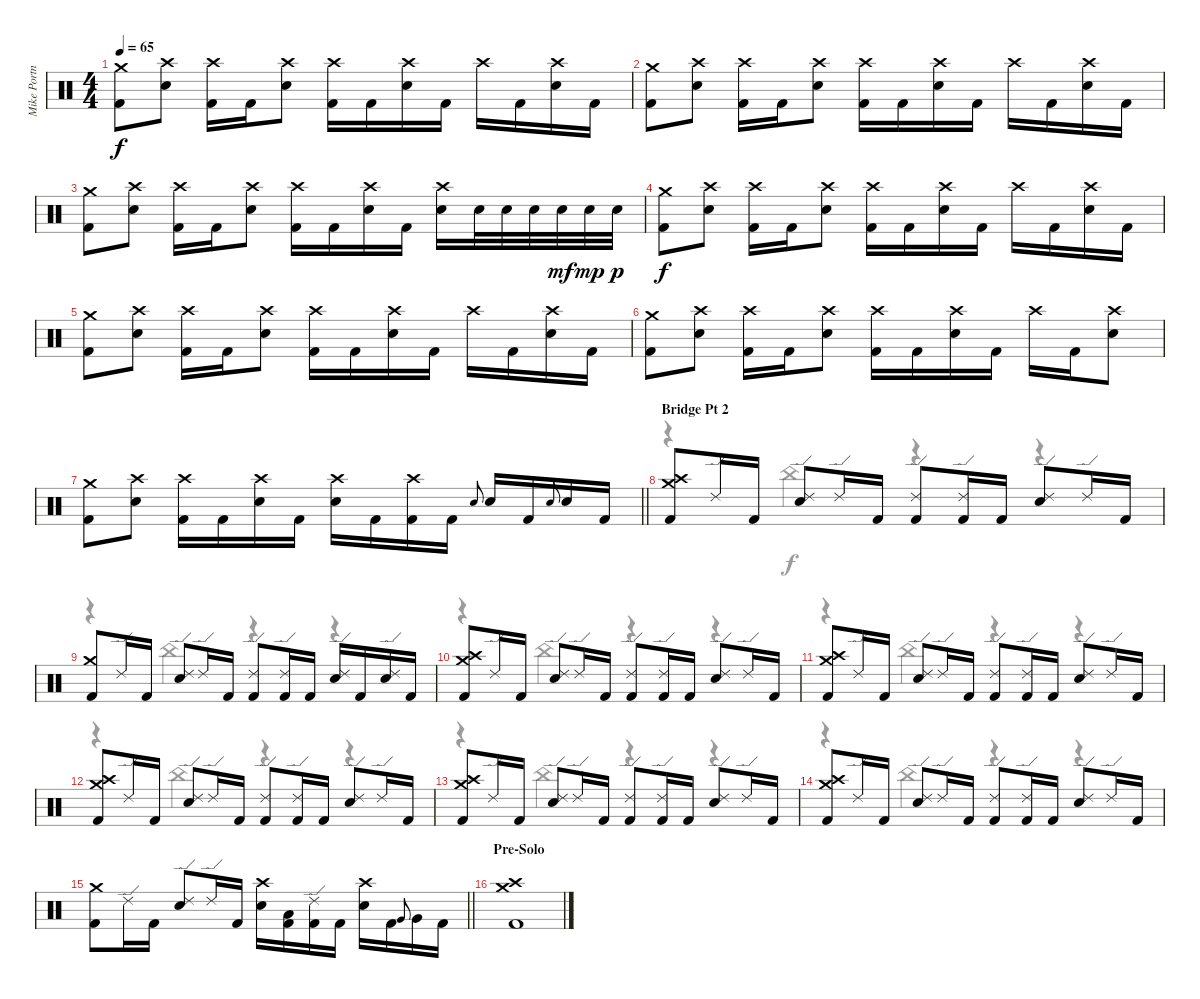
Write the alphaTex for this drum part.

\track ("Mike Portnoy [Drums]" "Mike Portn") {instrument percussion}
\staff {score}
\articulation defaults
\voice
\ts (4 4)
\tempo 65
\clef neutral
\ks c
("Crash medium (hit)" "Kick (hit) 2").8{dy f} ("Crash high (hit)" "Electric Snare (hit)").8 ("Crash high (hit)" "Kick (hit) 2").16 "Kick (hit) 2".16 ("Crash high (hit)" "Electric Snare (hit)").8 ("Crash high (hit)" "Kick (hit) 2").16 "Kick (hit) 2".16 ("Crash high (hit)" "Electric Snare (hit)").16 "Kick (hit) 2".16 "Crash high (hit)".16 "Kick (hit) 2".16 ("Crash high (hit)" "Electric Snare (hit)").16 "Kick (hit) 2".16 |
("Crash medium (hit)" "Kick (hit) 2").8 ("Crash high (hit)" "Electric Snare (hit)").8 ("Crash high (hit)" "Kick (hit) 2").16 "Kick (hit) 2".16 ("Crash high (hit)" "Electric Snare (hit)").8 ("Crash high (hit)" "Kick (hit) 2").16 "Kick (hit) 2".16 ("Crash high (hit)" "Electric Snare (hit)").16 "Kick (hit) 2".16 "Crash high (hit)".16 "Kick (hit) 2".16 ("Crash high (hit)" "Electric Snare (hit)").16 "Kick (hit) 2".16 |
("Crash medium (hit)" "Kick (hit) 2").8 ("Crash high (hit)" "Electric Snare (hit)").8 ("Crash high (hit)" "Kick (hit) 2").16 "Kick (hit) 2".16 ("Crash high (hit)" "Electric Snare (hit)").8 ("Crash high (hit)" "Kick (hit) 2").16 "Kick (hit) 2".16 ("Crash high (hit)" "Electric Snare (hit)").16 "Kick (hit) 2".16 ("Crash high (hit)" "Electric Snare (hit)").16 "Electric Snare (hit)".32 "Electric Snare (hit)".32 "Electric Snare (hit)".32 "Electric Snare (hit)".32{dy mf} "Electric Snare (hit)".32{dy mp} "Electric Snare (hit)".32{dy p} |
("Crash medium (hit)" "Kick (hit) 2").8{dy f} ("Crash high (hit)" "Electric Snare (hit)").8 ("Crash high (hit)" "Kick (hit) 2").16 "Kick (hit) 2".16 ("Crash high (hit)" "Electric Snare (hit)").8 ("Crash high (hit)" "Kick (hit) 2").16 "Kick (hit) 2".16 ("Crash high (hit)" "Electric Snare (hit)").16 "Kick (hit) 2".16 "Crash high (hit)".16 "Kick (hit) 2".16 ("Crash high (hit)" "Electric Snare (hit)").16 "Kick (hit) 2".16 |
("Crash medium (hit)" "Kick (hit) 2").8 ("Crash high (hit)" "Electric Snare (hit)").8 ("Crash high (hit)" "Kick (hit) 2").16 "Kick (hit) 2".16 ("Crash high (hit)" "Electric Snare (hit)").8 ("Crash high (hit)" "Kick (hit) 2").16 "Kick (hit) 2".16 ("Crash high (hit)" "Electric Snare (hit)").16 "Kick (hit) 2".16 "Crash high (hit)".16 "Kick (hit) 2".16 ("Crash high (hit)" "Electric Snare (hit)").16 "Kick (hit) 2".16 |
("Crash medium (hit)" "Kick (hit) 2").8 ("Crash high (hit)" "Electric Snare (hit)").8 ("Crash high (hit)" "Kick (hit) 2").16 "Kick (hit) 2".16 ("Crash high (hit)" "Electric Snare (hit)").8 ("Crash high (hit)" "Kick (hit) 2").16 "Kick (hit) 2".16 ("Crash high (hit)" "Electric Snare (hit)").16 "Kick (hit) 2".16 "Crash high (hit)".16 "Kick (hit) 2".16 ("Crash high (hit)" "Electric Snare (hit)").8 |
\barLineRight lightlight
("Crash medium (hit)" "Kick (hit) 2").8 ("Crash high (hit)" "Electric Snare (hit)").8 ("Crash high (hit)" "Kick (hit) 2").16 "Kick (hit) 2".16 ("Crash high (hit)" "Electric Snare (hit)").16 "Kick (hit) 2".16 ("Crash high (hit)" "Electric Snare (hit)").16 "Kick (hit) 2".16 ("Crash high (hit)" "Kick (hit) 2").16 "Kick (hit) 2".16 "Electric Snare (hit)".8{gr onbeat} "Electric Snare (hit)".16 "Kick (hit) 2".16 "Electric Snare (hit)".8{gr onbeat} "Electric Snare (hit)".16 "Kick (hit) 2".16 |
\section ("" "Bridge Pt 2")
("Crash high (hit)" "Crash medium (hit)" "Kick (hit) 2").8 "Ride (edge) 2".16 "Kick (hit) 2".16 ("Ride (edge) 2" "Electric Snare (hit)").8 "Ride (edge) 2".16 "Kick (hit) 2".16 ("Ride (edge) 2" "Kick (hit) 2").8 ("Ride (edge) 2" "Kick (hit) 2").16 "Kick (hit) 2".16 ("Ride (edge) 2" "Electric Snare (hit)").8 "Ride (edge) 2".16 "Kick (hit) 2".16 |
("Crash medium (hit)" "Kick (hit) 2").8 "Ride (edge) 2".16 "Kick (hit) 2".16 ("Ride (edge) 2" "Electric Snare (hit)").8 "Ride (edge) 2".16 "Kick (hit) 2".16 ("Ride (edge) 2" "Kick (hit) 2").8 ("Ride (edge) 2" "Kick (hit) 2").16 "Kick (hit) 2".16 ("Ride (edge) 2" "Electric Snare (hit)").16 "Kick (hit) 2".16 ("Ride (edge) 2" "Electric Snare (hit)").16 "Kick (hit) 2".16 |
("Crash high (hit)" "Crash medium (hit)" "Kick (hit) 2").8 "Ride (edge) 2".16 "Kick (hit) 2".16 ("Ride (edge) 2" "Electric Snare (hit)").8 "Ride (edge) 2".16 "Kick (hit) 2".16 ("Ride (edge) 2" "Kick (hit) 2").8 ("Ride (edge) 2" "Kick (hit) 2").16 "Kick (hit) 2".16 ("Ride (edge) 2" "Electric Snare (hit)").8 "Ride (edge) 2".16 "Kick (hit) 2".16 |
("Crash high (hit)" "Crash medium (hit)" "Kick (hit) 2").8 "Ride (edge) 2".16 "Kick (hit) 2".16 ("Ride (edge) 2" "Electric Snare (hit)").8 "Ride (edge) 2".16 "Kick (hit) 2".16 ("Ride (edge) 2" "Kick (hit) 2").8 ("Ride (edge) 2" "Kick (hit) 2").16 "Kick (hit) 2".16 ("Ride (edge) 2" "Electric Snare (hit)").8 "Ride (edge) 2".16 "Kick (hit) 2".16 |
("Crash high (hit)" "Crash medium (hit)" "Kick (hit) 2").8 "Ride (edge) 2".16 "Kick (hit) 2".16 ("Ride (edge) 2" "Electric Snare (hit)").8 "Ride (edge) 2".16 "Kick (hit) 2".16 ("Ride (edge) 2" "Kick (hit) 2").8 ("Ride (edge) 2" "Kick (hit) 2").16 "Kick (hit) 2".16 ("Ride (edge) 2" "Electric Snare (hit)").8 "Ride (edge) 2".16 "Kick (hit) 2".16 |
("Crash high (hit)" "Crash medium (hit)" "Kick (hit) 2").8 "Ride (edge) 2".16 "Kick (hit) 2".16 ("Ride (edge) 2" "Electric Snare (hit)").8 "Ride (edge) 2".16 "Kick (hit) 2".16 ("Ride (edge) 2" "Kick (hit) 2").8 ("Ride (edge) 2" "Kick (hit) 2").16 "Kick (hit) 2".16 ("Ride (edge) 2" "Electric Snare (hit)").8 "Ride (edge) 2".16 "Kick (hit) 2".16 |
("Crash high (hit)" "Crash medium (hit)" "Kick (hit) 2").8 "Ride (edge) 2".16 "Kick (hit) 2".16 ("Ride (edge) 2" "Electric Snare (hit)").8 "Ride (edge) 2".16 "Kick (hit) 2".16 ("Ride (edge) 2" "Kick (hit) 2").8 ("Ride (edge) 2" "Kick (hit) 2").16 "Kick (hit) 2".16 ("Ride (edge) 2" "Electric Snare (hit)").8 "Ride (edge) 2".16 "Kick (hit) 2".16 |
\barLineRight lightlight
("Crash medium (hit)" "Kick (hit) 2").8 "Ride (edge) 2".16 "Kick (hit) 2".16 ("Ride (edge) 2" "Electric Snare (hit)").8 "Ride (edge) 2".16 "Kick (hit) 2".16 ("Crash high (hit)" "Electric Snare (hit)").16 ("Low Tom (hit)" "Kick (hit) 2").16 ("Ride (edge) 2" "Kick (hit) 2").16 "Kick (hit) 2".16 ("Crash high (hit)" "Electric Snare (hit)").16 "Kick (hit) 2".16 "Very Low Tom (hit)".8{gr onbeat} "Very Low Tom (hit)".16 "Kick (hit) 2".16 |
\section ("" "Pre-Solo")
("Crash high (hit)" "Crash medium (hit)" "Kick (hit) 2").1
\voice
\clef neutral
\ottava regular
\simile none
\ks c
|
|
|
|
|
|
\barLineRight lightlight
|
r.4 "China (hit)".4 r.4 r.4 |
r.4 "China (hit)".4 r.4 r.4 |
r.4 "China (hit)".4 r.4 r.4 |
r.4 "China (hit)".4 r.4 r.4 |
r.4 "China (hit)".4 r.4 r.4 |
r.4 "China (hit)".4 r.4 r.4 |
r.4 "China (hit)".4 r.4 r.4 |
\barLineRight lightlight
|
